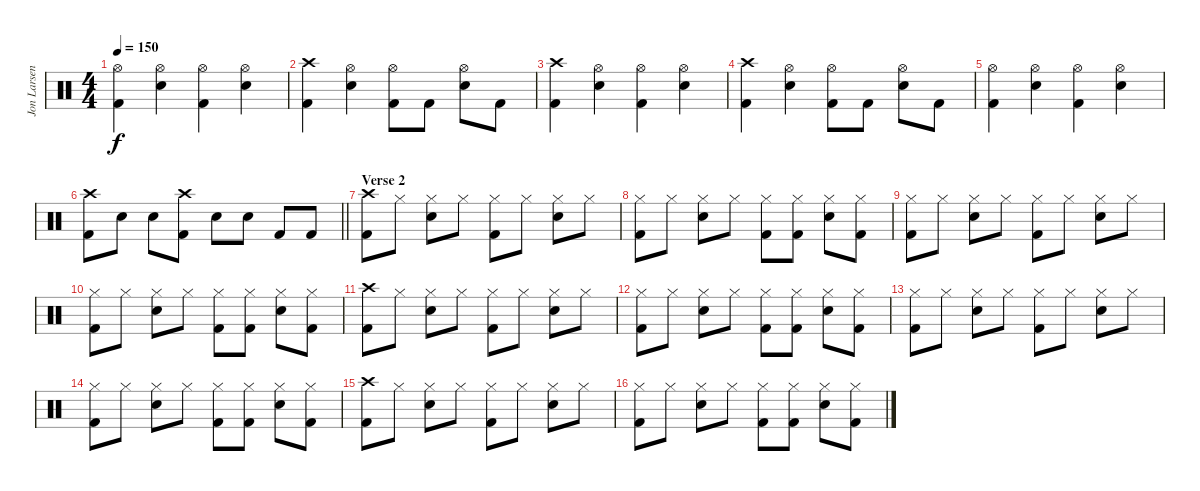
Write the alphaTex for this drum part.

\track ("Jon Larsen" "Jon Larsen") {instrument percussion bank 10}
\staff {score}
\articulation defaults
\ts (4 4)
\tempo 150
\clef neutral
\ks c
("Hi-Hat (open)" "Kick (hit) 2").4{dy f} ("Hi-Hat (open)" "Electric Snare (hit)").4 ("Hi-Hat (open)" "Kick (hit) 2").4 ("Hi-Hat (open)" "Electric Snare (hit)").4 |
("Crash high (hit)" "Kick (hit) 2").4 ("Hi-Hat (open)" "Electric Snare (hit)").4 ("Hi-Hat (open)" "Kick (hit) 2").8 "Kick (hit) 2".8 ("Hi-Hat (open)" "Electric Snare (hit)").8 "Kick (hit) 2".8 |
("Crash high (hit)" "Kick (hit) 2").4 ("Hi-Hat (open)" "Electric Snare (hit)").4 ("Hi-Hat (open)" "Kick (hit) 2").4 ("Hi-Hat (open)" "Electric Snare (hit)").4 |
("Crash high (hit)" "Kick (hit) 2").4 ("Hi-Hat (open)" "Electric Snare (hit)").4 ("Hi-Hat (open)" "Kick (hit) 2").8 "Kick (hit) 2".8 ("Hi-Hat (open)" "Electric Snare (hit)").8 "Kick (hit) 2".8 |
("Hi-Hat (open)" "Kick (hit) 2").4 ("Hi-Hat (open)" "Electric Snare (hit)").4 ("Hi-Hat (open)" "Kick (hit) 2").4 ("Hi-Hat (open)" "Electric Snare (hit)").4 |
\barLineRight lightlight
("Crash high (hit)" "Kick (hit) 2").8 "Electric Snare (hit)".8 "Electric Snare (hit)".8 ("Crash high (hit)" "Kick (hit) 2").8 "Electric Snare (hit)".8 "Electric Snare (hit)".8 "Kick (hit) 2".8 "Kick (hit) 2".8 |
\section ("" "Verse 2")
("Crash high (hit)" "Kick (hit) 2").8 "Hi-Hat (closed)".8 ("Hi-Hat (closed)" "Electric Snare (hit)").8 "Hi-Hat (closed)".8 ("Hi-Hat (closed)" "Kick (hit) 2").8 "Hi-Hat (closed)".8 ("Hi-Hat (closed)" "Electric Snare (hit)").8 "Hi-Hat (closed)".8 |
("Hi-Hat (closed)" "Kick (hit) 2").8 "Hi-Hat (closed)".8 ("Hi-Hat (closed)" "Electric Snare (hit)").8 "Hi-Hat (closed)".8 ("Hi-Hat (closed)" "Kick (hit) 2").8 ("Hi-Hat (closed)" "Kick (hit) 2").8 ("Hi-Hat (closed)" "Electric Snare (hit)").8 ("Hi-Hat (closed)" "Kick (hit) 2").8 |
("Hi-Hat (closed)" "Kick (hit) 2").8 "Hi-Hat (closed)".8 ("Hi-Hat (closed)" "Electric Snare (hit)").8 "Hi-Hat (closed)".8 ("Hi-Hat (closed)" "Kick (hit) 2").8 "Hi-Hat (closed)".8 ("Hi-Hat (closed)" "Electric Snare (hit)").8 "Hi-Hat (closed)".8 |
("Hi-Hat (closed)" "Kick (hit) 2").8 "Hi-Hat (closed)".8 ("Hi-Hat (closed)" "Electric Snare (hit)").8 "Hi-Hat (closed)".8 ("Hi-Hat (closed)" "Kick (hit) 2").8 ("Hi-Hat (closed)" "Kick (hit) 2").8 ("Hi-Hat (closed)" "Electric Snare (hit)").8 ("Hi-Hat (closed)" "Kick (hit) 2").8 |
("Crash high (hit)" "Kick (hit) 2").8 "Hi-Hat (closed)".8 ("Hi-Hat (closed)" "Electric Snare (hit)").8 "Hi-Hat (closed)".8 ("Hi-Hat (closed)" "Kick (hit) 2").8 "Hi-Hat (closed)".8 ("Hi-Hat (closed)" "Electric Snare (hit)").8 "Hi-Hat (closed)".8 |
("Hi-Hat (closed)" "Kick (hit) 2").8 "Hi-Hat (closed)".8 ("Hi-Hat (closed)" "Electric Snare (hit)").8 "Hi-Hat (closed)".8 ("Hi-Hat (closed)" "Kick (hit) 2").8 ("Hi-Hat (closed)" "Kick (hit) 2").8 ("Hi-Hat (closed)" "Electric Snare (hit)").8 ("Hi-Hat (closed)" "Kick (hit) 2").8 |
("Hi-Hat (closed)" "Kick (hit) 2").8 "Hi-Hat (closed)".8 ("Hi-Hat (closed)" "Electric Snare (hit)").8 "Hi-Hat (closed)".8 ("Hi-Hat (closed)" "Kick (hit) 2").8 "Hi-Hat (closed)".8 ("Hi-Hat (closed)" "Electric Snare (hit)").8 "Hi-Hat (closed)".8 |
("Hi-Hat (closed)" "Kick (hit) 2").8 "Hi-Hat (closed)".8 ("Hi-Hat (closed)" "Electric Snare (hit)").8 "Hi-Hat (closed)".8 ("Hi-Hat (closed)" "Kick (hit) 2").8 ("Hi-Hat (closed)" "Kick (hit) 2").8 ("Hi-Hat (closed)" "Electric Snare (hit)").8 ("Hi-Hat (closed)" "Kick (hit) 2").8 |
("Crash high (hit)" "Kick (hit) 2").8 "Hi-Hat (closed)".8 ("Hi-Hat (closed)" "Electric Snare (hit)").8 "Hi-Hat (closed)".8 ("Hi-Hat (closed)" "Kick (hit) 2").8 "Hi-Hat (closed)".8 ("Hi-Hat (closed)" "Electric Snare (hit)").8 "Hi-Hat (closed)".8 |
("Hi-Hat (closed)" "Kick (hit) 2").8 "Hi-Hat (closed)".8 ("Hi-Hat (closed)" "Electric Snare (hit)").8 "Hi-Hat (closed)".8 ("Hi-Hat (closed)" "Kick (hit) 2").8 ("Hi-Hat (closed)" "Kick (hit) 2").8 ("Hi-Hat (closed)" "Electric Snare (hit)").8 ("Hi-Hat (closed)" "Kick (hit) 2").8
